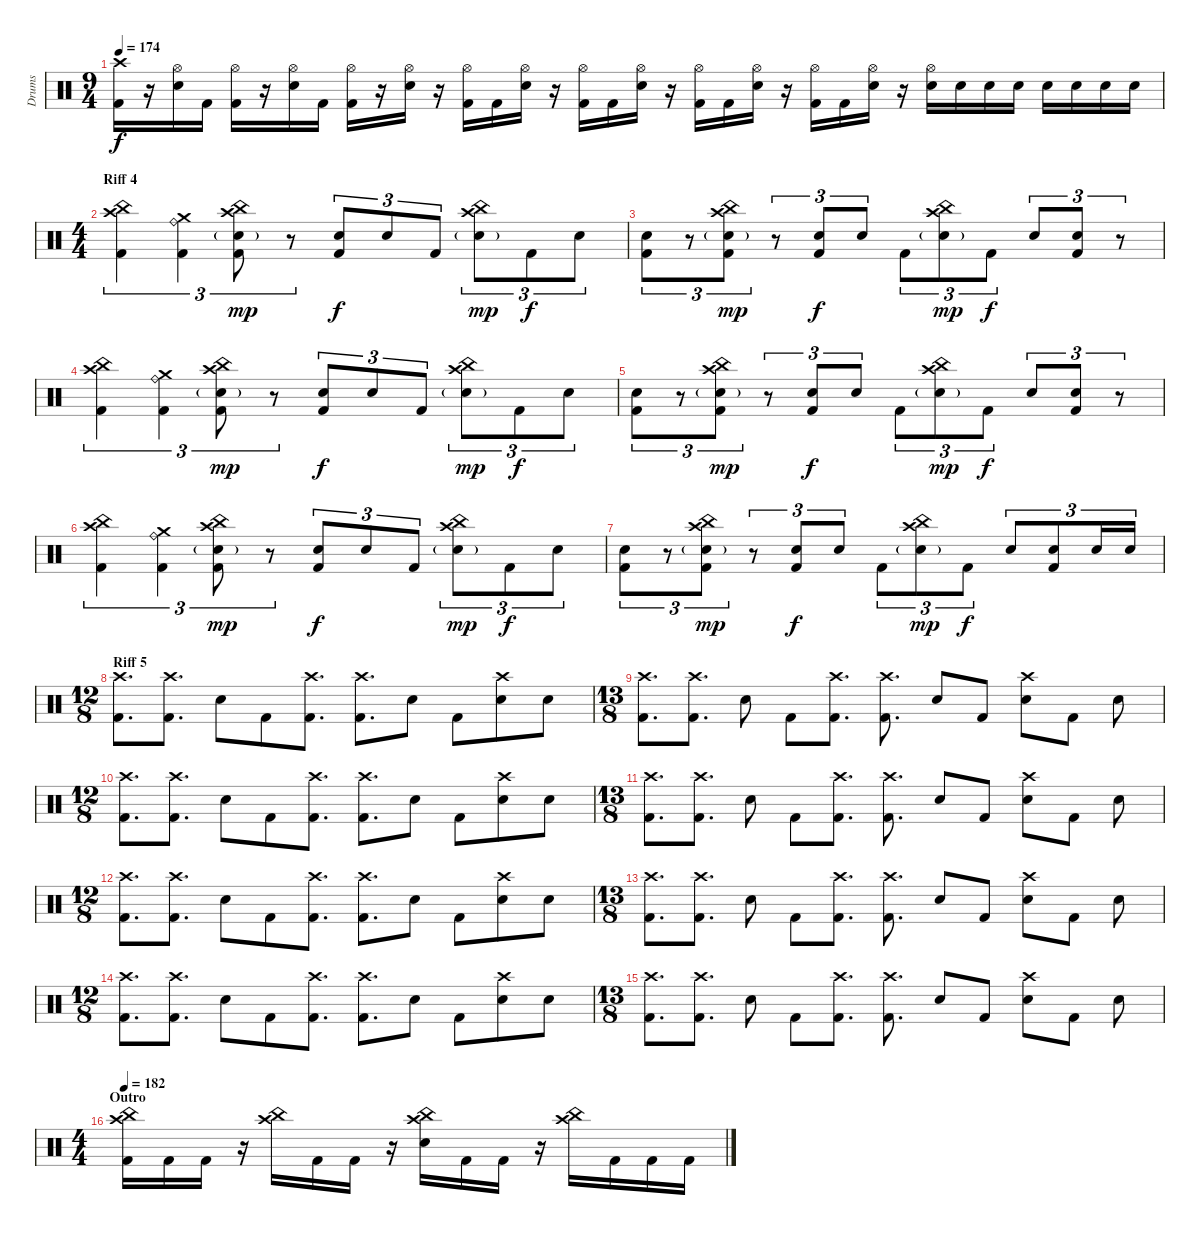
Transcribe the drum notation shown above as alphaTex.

\track ("Drums" "Drums") {instrument percussion}
\staff {score}
\articulation defaults
\ts (9 4)
\tempo 174
\clef neutral
\ks c
("Crash high (hit)" "Kick (hit) 2").16{dy f} r.16 ("Hi-Hat (open)" "Electric Snare (hit)").16 "Kick (hit) 2".16 ("Hi-Hat (open)" "Kick (hit) 2").16 r.16 ("Hi-Hat (open)" "Electric Snare (hit)").16 "Kick (hit) 2".16 ("Hi-Hat (open)" "Kick (hit) 2").16 r.16 ("Hi-Hat (open)" "Electric Snare (hit)").16 r.16 ("Hi-Hat (open)" "Kick (hit) 2").16 "Kick (hit) 2".16 ("Hi-Hat (open)" "Electric Snare (hit)").16 r.16 ("Hi-Hat (open)" "Kick (hit) 2").16 "Kick (hit) 2".16 ("Hi-Hat (open)" "Electric Snare (hit)").16 r.16 ("Hi-Hat (open)" "Kick (hit) 2").16 "Kick (hit) 2".16 ("Hi-Hat (open)" "Electric Snare (hit)").16 r.16 ("Hi-Hat (open)" "Kick (hit) 2").16 "Kick (hit) 2".16 ("Hi-Hat (open)" "Electric Snare (hit)").16 r.16 ("Hi-Hat (open)" "Electric Snare (hit)").16 "Electric Snare (hit)".16 "Electric Snare (hit)".16 "Electric Snare (hit)".16 "Electric Snare (hit)".16 "Electric Snare (hit)".16 "Electric Snare (hit)".16 "Electric Snare (hit)".16 |
\ts (4 4)
\section ("" "Riff 4")
("China (hit)" "Crash high (hit)" "Kick (hit) 2").4{tu (3 2)} ("Ride (bell)" "Crash medium (hit)" "Kick (hit) 2").4{tu (3 2)} ("China (hit)" "Crash high (hit)" "Electric Snare (hit)"{g} "Kick (hit) 2").8{tu (3 2) dy mp} r.8{tu (3 2)} ("Electric Snare (hit)" "Kick (hit) 2").8{tu (3 2) dy f} "Electric Snare (hit)".8{tu (3 2)} "Kick (hit) 2".8{tu (3 2)} ("China (hit)" "Crash high (hit)" "Electric Snare (hit)"{g}).8{tu (3 2) dy mp} "Kick (hit) 2".8{tu (3 2) dy f} "Electric Snare (hit)".8{tu (3 2)} |
("Electric Snare (hit)" "Kick (hit) 2").8{tu (3 2)} r.8{tu (3 2)} ("China (hit)" "Crash high (hit)" "Electric Snare (hit)"{g} "Kick (hit) 2").8{tu (3 2) dy mp} r.8{tu (3 2)} ("Electric Snare (hit)" "Kick (hit) 2").8{tu (3 2) dy f} "Electric Snare (hit)".8{tu (3 2)} "Kick (hit) 2".8{tu (3 2)} ("China (hit)" "Crash high (hit)" "Electric Snare (hit)"{g}).8{tu (3 2) dy mp} "Kick (hit) 2".8{tu (3 2) dy f} "Electric Snare (hit)".8{tu (3 2)} ("Electric Snare (hit)" "Kick (hit) 2").8{tu (3 2)} r.8{tu (3 2)} |
("China (hit)" "Crash high (hit)" "Kick (hit) 2").4{tu (3 2)} ("Ride (bell)" "Crash medium (hit)" "Kick (hit) 2").4{tu (3 2)} ("China (hit)" "Crash high (hit)" "Electric Snare (hit)"{g} "Kick (hit) 2").8{tu (3 2) dy mp} r.8{tu (3 2)} ("Electric Snare (hit)" "Kick (hit) 2").8{tu (3 2) dy f} "Electric Snare (hit)".8{tu (3 2)} "Kick (hit) 2".8{tu (3 2)} ("China (hit)" "Crash high (hit)" "Electric Snare (hit)"{g}).8{tu (3 2) dy mp} "Kick (hit) 2".8{tu (3 2) dy f} "Electric Snare (hit)".8{tu (3 2)} |
("Electric Snare (hit)" "Kick (hit) 2").8{tu (3 2)} r.8{tu (3 2)} ("China (hit)" "Crash high (hit)" "Electric Snare (hit)"{g} "Kick (hit) 2").8{tu (3 2) dy mp} r.8{tu (3 2)} ("Electric Snare (hit)" "Kick (hit) 2").8{tu (3 2) dy f} "Electric Snare (hit)".8{tu (3 2)} "Kick (hit) 2".8{tu (3 2)} ("China (hit)" "Crash high (hit)" "Electric Snare (hit)"{g}).8{tu (3 2) dy mp} "Kick (hit) 2".8{tu (3 2) dy f} "Electric Snare (hit)".8{tu (3 2)} ("Electric Snare (hit)" "Kick (hit) 2").8{tu (3 2)} r.8{tu (3 2)} |
("China (hit)" "Crash high (hit)" "Kick (hit) 2").4{tu (3 2)} ("Ride (bell)" "Crash medium (hit)" "Kick (hit) 2").4{tu (3 2)} ("China (hit)" "Crash high (hit)" "Electric Snare (hit)"{g} "Kick (hit) 2").8{tu (3 2) dy mp} r.8{tu (3 2)} ("Electric Snare (hit)" "Kick (hit) 2").8{tu (3 2) dy f} "Electric Snare (hit)".8{tu (3 2)} "Kick (hit) 2".8{tu (3 2)} ("China (hit)" "Crash high (hit)" "Electric Snare (hit)"{g}).8{tu (3 2) dy mp} "Kick (hit) 2".8{tu (3 2) dy f} "Electric Snare (hit)".8{tu (3 2)} |
("Electric Snare (hit)" "Kick (hit) 2").8{tu (3 2)} r.8{tu (3 2)} ("China (hit)" "Crash high (hit)" "Electric Snare (hit)"{g} "Kick (hit) 2").8{tu (3 2) dy mp} r.8{tu (3 2)} ("Electric Snare (hit)" "Kick (hit) 2").8{tu (3 2) dy f} "Electric Snare (hit)".8{tu (3 2)} "Kick (hit) 2".8{tu (3 2)} ("China (hit)" "Crash high (hit)" "Electric Snare (hit)"{g}).8{tu (3 2) dy mp} "Kick (hit) 2".8{tu (3 2) dy f} "Electric Snare (hit)".8{tu (3 2)} ("Electric Snare (hit)" "Kick (hit) 2").8{tu (3 2)} "Electric Snare (hit)".16{tu (3 2)} "Electric Snare (hit)".16{tu (3 2)} |
\ts (12 8)
\section ("" "Riff 5")
("Crash high (hit)" "Kick (hit) 2").8{d} ("Crash high (hit)" "Kick (hit) 2").8{d} "Electric Snare (hit)".8 "Kick (hit) 2".8 ("Crash high (hit)" "Kick (hit) 2").8{d} ("Crash high (hit)" "Kick (hit) 2").8{d} "Electric Snare (hit)".8 "Kick (hit) 2".8 ("Crash high (hit)" "Electric Snare (hit)").8 "Electric Snare (hit)".8 |
\ts (13 8)
("Crash high (hit)" "Kick (hit) 2").8{d} ("Crash high (hit)" "Kick (hit) 2").8{d} "Electric Snare (hit)".8 "Kick (hit) 2".8 ("Crash high (hit)" "Kick (hit) 2").8{d} ("Crash high (hit)" "Kick (hit) 2").8{d} "Electric Snare (hit)".8 "Kick (hit) 2".8 ("Crash high (hit)" "Electric Snare (hit)").8 "Kick (hit) 2".8 "Electric Snare (hit)".8 |
\ts (12 8)
("Crash high (hit)" "Kick (hit) 2").8{d} ("Crash high (hit)" "Kick (hit) 2").8{d} "Electric Snare (hit)".8 "Kick (hit) 2".8 ("Crash high (hit)" "Kick (hit) 2").8{d} ("Crash high (hit)" "Kick (hit) 2").8{d} "Electric Snare (hit)".8 "Kick (hit) 2".8 ("Crash high (hit)" "Electric Snare (hit)").8 "Electric Snare (hit)".8 |
\ts (13 8)
("Crash high (hit)" "Kick (hit) 2").8{d} ("Crash high (hit)" "Kick (hit) 2").8{d} "Electric Snare (hit)".8 "Kick (hit) 2".8 ("Crash high (hit)" "Kick (hit) 2").8{d} ("Crash high (hit)" "Kick (hit) 2").8{d} "Electric Snare (hit)".8 "Kick (hit) 2".8 ("Crash high (hit)" "Electric Snare (hit)").8 "Kick (hit) 2".8 "Electric Snare (hit)".8 |
\ts (12 8)
("Crash high (hit)" "Kick (hit) 2").8{d} ("Crash high (hit)" "Kick (hit) 2").8{d} "Electric Snare (hit)".8 "Kick (hit) 2".8 ("Crash high (hit)" "Kick (hit) 2").8{d} ("Crash high (hit)" "Kick (hit) 2").8{d} "Electric Snare (hit)".8 "Kick (hit) 2".8 ("Crash high (hit)" "Electric Snare (hit)").8 "Electric Snare (hit)".8 |
\ts (13 8)
("Crash high (hit)" "Kick (hit) 2").8{d} ("Crash high (hit)" "Kick (hit) 2").8{d} "Electric Snare (hit)".8 "Kick (hit) 2".8 ("Crash high (hit)" "Kick (hit) 2").8{d} ("Crash high (hit)" "Kick (hit) 2").8{d} "Electric Snare (hit)".8 "Kick (hit) 2".8 ("Crash high (hit)" "Electric Snare (hit)").8 "Kick (hit) 2".8 "Electric Snare (hit)".8 |
\ts (12 8)
("Crash high (hit)" "Kick (hit) 2").8{d} ("Crash high (hit)" "Kick (hit) 2").8{d} "Electric Snare (hit)".8 "Kick (hit) 2".8 ("Crash high (hit)" "Kick (hit) 2").8{d} ("Crash high (hit)" "Kick (hit) 2").8{d} "Electric Snare (hit)".8 "Kick (hit) 2".8 ("Crash high (hit)" "Electric Snare (hit)").8 "Electric Snare (hit)".8 |
\ts (13 8)
("Crash high (hit)" "Kick (hit) 2").8{d} ("Crash high (hit)" "Kick (hit) 2").8{d} "Electric Snare (hit)".8 "Kick (hit) 2".8 ("Crash high (hit)" "Kick (hit) 2").8{d} ("Crash high (hit)" "Kick (hit) 2").8{d} "Electric Snare (hit)".8 "Kick (hit) 2".8 ("Crash high (hit)" "Electric Snare (hit)").8 "Kick (hit) 2".8 "Electric Snare (hit)".8 |
\ts (4 4)
\section ("" "Outro")
\tempo 174
\tempo 182
("China (hit)" "Crash high (hit)" "Kick (hit) 2").16 "Kick (hit) 2".16 "Kick (hit) 2".16 r.16 ("China (hit)" "Crash high (hit)").16 "Kick (hit) 2".16 "Kick (hit) 2".16 r.16 ("China (hit)" "Crash high (hit)" "Electric Snare (hit)").16 "Kick (hit) 2".16 "Kick (hit) 2".16 r.16 ("China (hit)" "Crash high (hit)").16 "Kick (hit) 2".16 "Kick (hit) 2".16 "Kick (hit) 2".16
